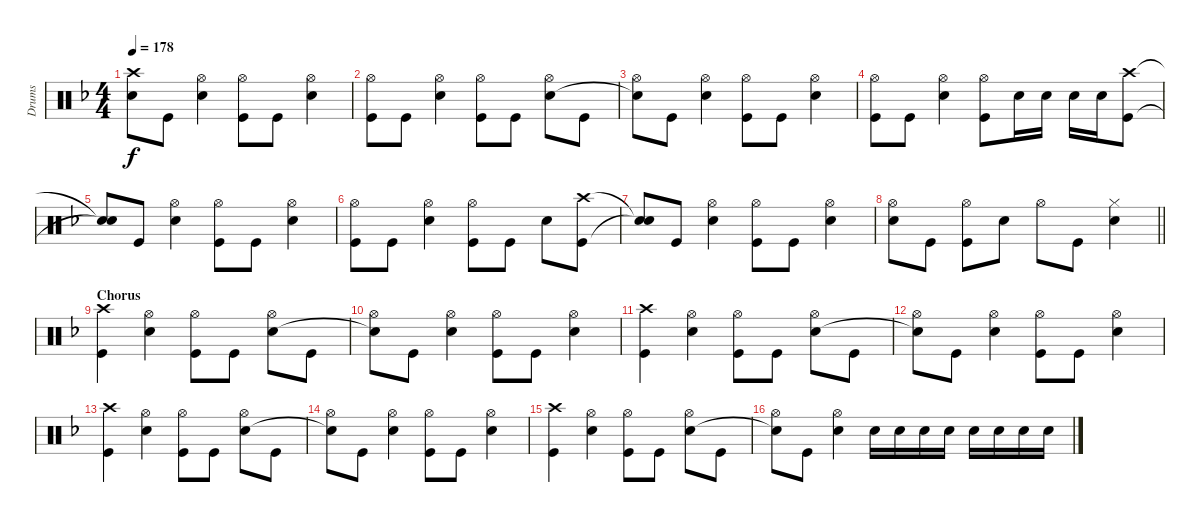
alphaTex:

\track ("Drums" "Drums") {instrument percussion}
\staff {score}
\articulation defaults
\ts (4 4)
\tempo 178
\clef neutral
\ks f
("Crash high (hit)"{t} "Snare (hit)"{t}).8{dy f} "Kick (hit)".8 ("Hi-Hat (open)" "Electric Snare (hit)").4 ("Hi-Hat (open)" "Kick (hit)").8 "Kick (hit)".8 ("Hi-Hat (open)" "Electric Snare (hit)").4 |
("Hi-Hat (open)" "Kick (hit)").8 "Kick (hit)".8 ("Hi-Hat (open)" "Electric Snare (hit)").4 ("Hi-Hat (open)" "Kick (hit)").8 "Kick (hit)".8 ("Hi-Hat (open)" "Electric Snare (hit)").8 "Kick (hit)".8 |
("Hi-Hat (open)" "Snare (hit)"{t}).8 "Kick (hit)".8 ("Hi-Hat (open)" "Electric Snare (hit)").4 ("Hi-Hat (open)" "Kick (hit)").8 "Kick (hit)".8 ("Hi-Hat (open)" "Electric Snare (hit)").4 |
("Hi-Hat (open)" "Kick (hit)").8 "Kick (hit)".8 ("Hi-Hat (open)" "Electric Snare (hit)").4 ("Hi-Hat (open)" "Kick (hit)").8 "Electric Snare (hit)".16 "Electric Snare (hit)".16 "Electric Snare (hit)".16 "Electric Snare (hit)".16 ("Crash high (hit)" "Kick (hit)").8 |
("Snare (hit)"{t} "Snare (hit)"{t}).8 "Kick (hit)".8 ("Hi-Hat (open)" "Electric Snare (hit)").4 ("Hi-Hat (open)" "Kick (hit)").8 "Kick (hit)".8 ("Hi-Hat (open)" "Electric Snare (hit)").4 |
("Hi-Hat (open)" "Kick (hit)").8 "Kick (hit)".8 ("Hi-Hat (open)" "Electric Snare (hit)").4 ("Hi-Hat (open)" "Kick (hit)").8 "Kick (hit)".8 "Electric Snare (hit)".8 ("Crash high (hit)" "Kick (hit)").8 |
("Snare (hit)"{t} "Snare (hit)"{t}).8 "Kick (hit)".8 ("Hi-Hat (open)" "Electric Snare (hit)").4 ("Hi-Hat (open)" "Kick (hit)").8 "Kick (hit)".8 ("Hi-Hat (open)" "Electric Snare (hit)").4 |
\barLineRight lightlight
("Hi-Hat (open)" "Electric Snare (hit)").8 "Kick (hit)".8 ("Hi-Hat (open)" "Kick (hit)").8 "Electric Snare (hit)".8 "Hi-Hat (open)".8 "Kick (hit)".8 ("Hi-Hat (closed)" "Electric Snare (hit)").4 |
\section ("" "Chorus")
("Crash high (hit)" "Kick (hit)").4 ("Hi-Hat (open)" "Electric Snare (hit)").4 ("Hi-Hat (open)" "Kick (hit)").8 "Kick (hit)".8 ("Hi-Hat (open)" "Electric Snare (hit)").8 "Kick (hit)".8 |
("Hi-Hat (open)" "Snare (hit)"{t}).8 "Kick (hit)".8 ("Hi-Hat (open)" "Electric Snare (hit)").4 ("Hi-Hat (open)" "Kick (hit)").8 "Kick (hit)".8 ("Hi-Hat (open)" "Electric Snare (hit)").4 |
("Crash high (hit)" "Kick (hit)").4 ("Hi-Hat (open)" "Electric Snare (hit)").4 ("Hi-Hat (open)" "Kick (hit)").8 "Kick (hit)".8 ("Hi-Hat (open)" "Electric Snare (hit)").8 "Kick (hit)".8 |
("Hi-Hat (open)" "Snare (hit)"{t}).8 "Kick (hit)".8 ("Hi-Hat (open)" "Electric Snare (hit)").4 ("Hi-Hat (open)" "Kick (hit)").8 "Kick (hit)".8 ("Hi-Hat (open)" "Electric Snare (hit)").4 |
("Crash high (hit)" "Kick (hit)").4 ("Hi-Hat (open)" "Electric Snare (hit)").4 ("Hi-Hat (open)" "Kick (hit)").8 "Kick (hit)".8 ("Hi-Hat (open)" "Electric Snare (hit)").8 "Kick (hit)".8 |
("Hi-Hat (open)" "Snare (hit)"{t}).8 "Kick (hit)".8 ("Hi-Hat (open)" "Electric Snare (hit)").4 ("Hi-Hat (open)" "Kick (hit)").8 "Kick (hit)".8 ("Hi-Hat (open)" "Electric Snare (hit)").4 |
("Crash high (hit)" "Kick (hit)").4 ("Hi-Hat (open)" "Electric Snare (hit)").4 ("Hi-Hat (open)" "Kick (hit)").8 "Kick (hit)".8 ("Hi-Hat (open)" "Electric Snare (hit)").8 "Kick (hit)".8 |
("Hi-Hat (open)" "Snare (hit)"{t}).8 "Kick (hit)".8 ("Hi-Hat (open)" "Electric Snare (hit)").4 "Electric Snare (hit)".16 "Electric Snare (hit)".16 "Electric Snare (hit)".16 "Electric Snare (hit)".16 "Electric Snare (hit)".16 "Electric Snare (hit)".16 "Electric Snare (hit)".16 "Electric Snare (hit)".16
